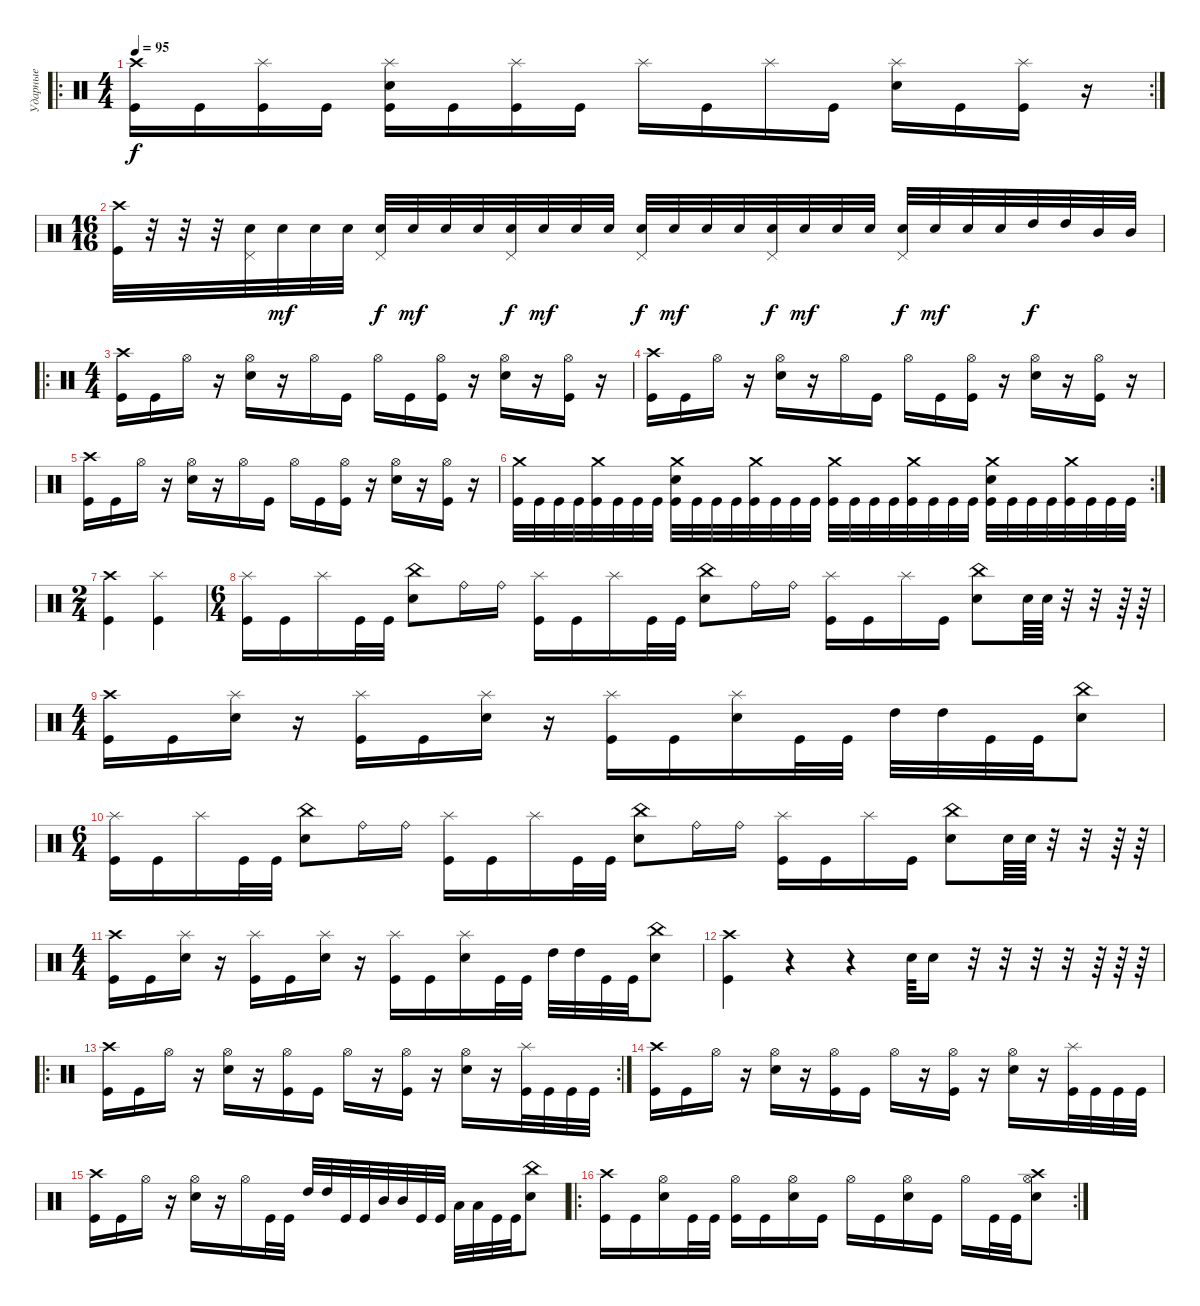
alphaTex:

\track ("Ударные" "Ударные") {instrument percussion}
\staff {score}
\articulation defaults
\ro
\rc 2
\ts (4 4)
\tempo 95
\clef neutral
\ks c
("Crash high (hit)" "Kick (hit)").16{dy f} "Kick (hit)".16 ("Splash (hit)" "Kick (hit)").16 "Kick (hit)".16 ("Splash (hit)" "Electric Snare (hit)" "Kick (hit)").16 "Kick (hit)".16 ("Splash (hit)" "Kick (hit)").16 "Kick (hit)".16 "Splash (hit)".16 "Kick (hit)".16 "Splash (hit)".16 "Kick (hit)".16 ("Splash (hit)" "Electric Snare (hit)").16 "Kick (hit)".16 ("Splash (hit)" "Kick (hit)").16 r.16 |
\ts (16 16)
("Kick (hit)" "Crash high (hit)").32 r.32 r.32 r.32 ("Pedal Hi-Hat (hit)" "Electric Snare (hit)").32 "Electric Snare (hit)".32{dy mf} "Electric Snare (hit)".32 "Electric Snare (hit)".32 ("Pedal Hi-Hat (hit)" "Electric Snare (hit)").32{dy f} "Electric Snare (hit)".32{dy mf} "Electric Snare (hit)".32 "Electric Snare (hit)".32 ("Pedal Hi-Hat (hit)" "Electric Snare (hit)").32{dy f} "Electric Snare (hit)".32{dy mf} "Electric Snare (hit)".32 "Electric Snare (hit)".32 ("Pedal Hi-Hat (hit)" "Electric Snare (hit)").32{dy f} "Electric Snare (hit)".32{dy mf} "Electric Snare (hit)".32 "Electric Snare (hit)".32 ("Pedal Hi-Hat (hit)" "Electric Snare (hit)").32{dy f} "Electric Snare (hit)".32{dy mf} "Electric Snare (hit)".32 "Electric Snare (hit)".32 ("Pedal Hi-Hat (hit)" "Electric Snare (hit)").32{dy f} "Electric Snare (hit)".32{dy mf} "Electric Snare (hit)".32 "Electric Snare (hit)".32 "High Tom (hit)".32{dy f} "High Tom (hit)".32 "Mid Tom (hit)".32 "Mid Tom (hit)".32 |
\ro
\ts (4 4)
("Crash high (hit)" "Kick (hit)").16 "Kick (hit)".16 "Hi-Hat (open)".16 r.16 ("Hi-Hat (open)" "Electric Snare (hit)").16 r.16 "Hi-Hat (open)".16 "Kick (hit)".16 "Hi-Hat (open)".16 "Kick (hit)".16 ("Hi-Hat (open)" "Kick (hit)").16 r.16 ("Hi-Hat (open)" "Electric Snare (hit)").16 r.16 ("Hi-Hat (open)" "Kick (hit)").16 r.16 |
("Crash high (hit)" "Kick (hit)").16 "Kick (hit)".16 "Hi-Hat (open)".16 r.16 ("Hi-Hat (open)" "Electric Snare (hit)").16 r.16 "Hi-Hat (open)".16 "Kick (hit)".16 "Hi-Hat (open)".16 "Kick (hit)".16 ("Hi-Hat (open)" "Kick (hit)").16 r.16 ("Hi-Hat (open)" "Electric Snare (hit)").16 r.16 ("Hi-Hat (open)" "Kick (hit)").16 r.16 |
("Crash high (hit)" "Kick (hit)").16 "Kick (hit)".16 "Hi-Hat (open)".16 r.16 ("Hi-Hat (open)" "Electric Snare (hit)").16 r.16 "Hi-Hat (open)".16 "Kick (hit)".16 "Hi-Hat (open)".16 "Kick (hit)".16 ("Hi-Hat (open)" "Kick (hit)").16 r.16 ("Hi-Hat (open)" "Electric Snare (hit)").16 r.16 ("Hi-Hat (open)" "Kick (hit)").16 r.16 |
\rc 2
("Crash medium (hit)" "Kick (hit)").32 "Kick (hit)".32 "Kick (hit)".32 "Kick (hit)".32 ("Crash medium (hit)" "Kick (hit)").32 "Kick (hit)".32 "Kick (hit)".32 "Kick (hit)".32 ("Crash medium (hit)" "Electric Snare (hit)" "Kick (hit)").32 "Kick (hit)".32 "Kick (hit)".32 "Kick (hit)".32 ("Crash medium (hit)" "Kick (hit)").32 "Kick (hit)".32 "Kick (hit)".32 "Kick (hit)".32 ("Crash medium (hit)" "Kick (hit)").32 "Kick (hit)".32 "Kick (hit)".32 "Kick (hit)".32 ("Crash medium (hit)" "Kick (hit)").32 "Kick (hit)".32 "Kick (hit)".32 "Kick (hit)".32 ("Crash medium (hit)" "Electric Snare (hit)" "Kick (hit)").32 "Kick (hit)".32 "Kick (hit)".32 "Kick (hit)".32 ("Crash medium (hit)" "Kick (hit)").32 "Kick (hit)".32 "Kick (hit)".32 "Kick (hit)".32 |
\ts (2 4)
("Crash high (hit)" "Kick (hit)").4 ("Splash (hit)" "Kick (hit)").4 |
\ts (6 4)
("Splash (hit)" "Kick (hit)").16 "Kick (hit)".16 "Splash (hit)".16 "Kick (hit)".32 "Kick (hit)".32 ("China (hit)" "Electric Snare (hit)").8 "Ride (bell)".16 "Ride (bell)".16 ("Splash (hit)" "Kick (hit)").16 "Kick (hit)".16 "Splash (hit)".16 "Kick (hit)".32 "Kick (hit)".32 ("China (hit)" "Electric Snare (hit)").8 "Ride (bell)".16 "Ride (bell)".16 ("Splash (hit)" "Kick (hit)").16 "Kick (hit)".16 "Splash (hit)".16 "Kick (hit)".16 ("China (hit)" "Electric Snare (hit)").8 "Electric Snare (hit)".64 "Electric Snare (hit)".64 r.32 r.32 r.64 r.64 |
\ts (4 4)
("Crash high (hit)" "Kick (hit)").16 "Kick (hit)".16 ("Splash (hit)" "Electric Snare (hit)").16 r.16 ("Splash (hit)" "Kick (hit)").16 "Kick (hit)".16 ("Splash (hit)" "Electric Snare (hit)").16 r.16 ("Splash (hit)" "Kick (hit)").16 "Kick (hit)".16 ("Splash (hit)" "Electric Snare (hit)").16 "Kick (hit)".32 "Kick (hit)".32 "High Tom (hit)".32 "High Tom (hit)".32 "Kick (hit)".32 "Kick (hit)".32 ("China (hit)" "Electric Snare (hit)").8 |
\ts (6 4)
("Splash (hit)" "Kick (hit)").16 "Kick (hit)".16 "Splash (hit)".16 "Kick (hit)".32 "Kick (hit)".32 ("China (hit)" "Electric Snare (hit)").8 "Ride (bell)".16 "Ride (bell)".16 ("Splash (hit)" "Kick (hit)").16 "Kick (hit)".16 "Splash (hit)".16 "Kick (hit)".32 "Kick (hit)".32 ("China (hit)" "Electric Snare (hit)").8 "Ride (bell)".16 "Ride (bell)".16 ("Splash (hit)" "Kick (hit)").16 "Kick (hit)".16 "Splash (hit)".16 "Kick (hit)".16 ("China (hit)" "Electric Snare (hit)").8 "Electric Snare (hit)".64 "Electric Snare (hit)".64 r.32 r.32 r.64 r.64 |
\ts (4 4)
("Crash high (hit)" "Kick (hit)").16 "Kick (hit)".16 ("Splash (hit)" "Electric Snare (hit)").16 r.16 ("Splash (hit)" "Kick (hit)").16 "Kick (hit)".16 ("Splash (hit)" "Electric Snare (hit)").16 r.16 ("Splash (hit)" "Kick (hit)").16 "Kick (hit)".16 ("Splash (hit)" "Electric Snare (hit)").16 "Kick (hit)".32 "Kick (hit)".32 "High Tom (hit)".32 "High Tom (hit)".32 "Kick (hit)".32 "Kick (hit)".32 ("China (hit)" "Electric Snare (hit)").8 |
("Crash high (hit)" "Kick (hit)").4 r.4 r.4 "Electric Snare (hit)".64 "Electric Snare (hit)".16 r.32 r.32 r.32 r.32 r.64 r.64 r.64 |
\ro
\rc 2
("Crash high (hit)" "Kick (hit)").16 "Kick (hit)".16 "Hi-Hat (open)".16 r.16 ("Hi-Hat (open)" "Electric Snare (hit)").16 r.16 ("Hi-Hat (open)" "Kick (hit)").16 "Kick (hit)".16 "Hi-Hat (open)".16 r.16 ("Hi-Hat (open)" "Kick (hit)").16 r.16 ("Hi-Hat (open)" "Electric Snare (hit)").16 r.16 ("Splash (hit)" "Kick (hit)").32 "Kick (hit)".32 "Kick (hit)".32 "Kick (hit)".32 |
("Crash high (hit)" "Kick (hit)").16 "Kick (hit)".16 "Hi-Hat (open)".16 r.16 ("Hi-Hat (open)" "Electric Snare (hit)").16 r.16 ("Hi-Hat (open)" "Kick (hit)").16 "Kick (hit)".16 "Hi-Hat (open)".16 r.16 ("Hi-Hat (open)" "Kick (hit)").16 r.16 ("Hi-Hat (open)" "Electric Snare (hit)").16 r.16 ("Splash (hit)" "Kick (hit)").32 "Kick (hit)".32 "Kick (hit)".32 "Kick (hit)".32 |
("Crash high (hit)" "Kick (hit)").16 "Kick (hit)".16 "Hi-Hat (open)".16 r.16 ("Hi-Hat (open)" "Electric Snare (hit)").16 r.16 "Hi-Hat (open)".16 "Kick (hit)".32 "Kick (hit)".32 "High Tom (hit)".32 "High Tom (hit)".32 "Kick (hit)".32 "Kick (hit)".32 "Mid Tom (hit)".32 "Mid Tom (hit)".32 "Kick (hit)".32 "Kick (hit)".32 "Low Tom (hit)".32 "Low Tom (hit)".32 "Kick (hit)".32 "Kick (hit)".32 ("China (hit)" "Electric Snare (hit)").8 |
\ro
\rc 2
("Crash high (hit)" "Kick (hit)").16 "Kick (hit)".16 ("Hi-Hat (open)" "Electric Snare (hit)").16 "Kick (hit)".32 "Kick (hit)".32 ("Hi-Hat (open)" "Kick (hit)").16 "Kick (hit)".16 ("Hi-Hat (open)" "Electric Snare (hit)").16 "Kick (hit)".16 "Hi-Hat (open)".16 "Kick (hit)".16 ("Hi-Hat (open)" "Electric Snare (hit)").16 "Kick (hit)".16 "Hi-Hat (open)".16 "Kick (hit)".32 "Kick (hit)".32 ("Hi-Hat (open)" "Crash high (hit)" "Electric Snare (hit)").8
